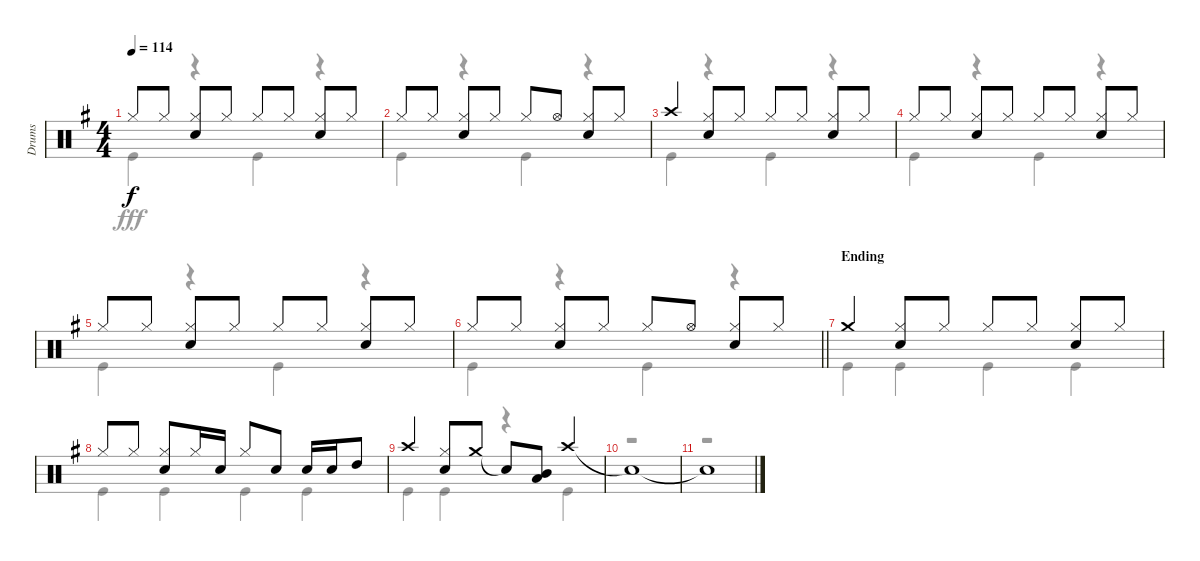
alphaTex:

\track ("Drums" "Drums") {instrument percussion}
\staff {score}
\articulation defaults
\voice
\ts (4 4)
\tempo 114
\clef neutral
\ks g "Hi-Hat (closed)".8{dy f} "Hi-Hat (closed)".8
("Hi-Hat (closed)" "Snare (hit) 2").8 "Hi-Hat (closed)".8 "Hi-Hat (closed)".8 "Hi-Hat (closed)".8 ("Hi-Hat (closed)" "Snare (hit) 2").8 "Hi-Hat (closed)".8 |
"Hi-Hat (closed)".8 "Hi-Hat (closed)".8 ("Hi-Hat (closed)" "Snare (hit) 2").8 "Hi-Hat (closed)".8 "Hi-Hat (closed)".8 "Hi-Hat (open)".8 ("Hi-Hat (closed)" "Snare (hit) 2").8 "Hi-Hat (closed)".8 |
"Crash high (hit)".4 ("Hi-Hat (closed)" "Snare (hit) 2").8 "Hi-Hat (closed)".8 "Hi-Hat (closed)".8 "Hi-Hat (closed)".8 ("Hi-Hat (closed)" "Snare (hit) 2").8 "Hi-Hat (closed)".8 |
"Hi-Hat (closed)".8 "Hi-Hat (closed)".8 ("Hi-Hat (closed)" "Snare (hit) 2").8 "Hi-Hat (closed)".8 "Hi-Hat (closed)".8 "Hi-Hat (closed)".8 ("Hi-Hat (closed)" "Snare (hit) 2").8 "Hi-Hat (closed)".8 |
"Hi-Hat (closed)".8 "Hi-Hat (closed)".8 ("Hi-Hat (closed)" "Snare (hit) 2").8 "Hi-Hat (closed)".8 "Hi-Hat (closed)".8 "Hi-Hat (closed)".8 ("Hi-Hat (closed)" "Snare (hit) 2").8 "Hi-Hat (closed)".8 |
\barLineRight lightlight "Hi-Hat (closed)".8 "Hi-Hat (closed)".8
("Hi-Hat (closed)" "Snare (hit) 2").8 "Hi-Hat (closed)".8 "Hi-Hat (closed)".8 "Hi-Hat (open)".8 ("Hi-Hat (closed)" "Snare (hit) 2").8 "Hi-Hat (closed)".8 |
\section ("" "Ending")
"Crash medium (hit)".4 ("Hi-Hat (closed)" "Snare (hit) 2").8 "Hi-Hat (closed)".8 "Hi-Hat (closed)".8 "Hi-Hat (closed)".8 ("Hi-Hat (closed)" "Snare (hit) 2").8 "Hi-Hat (closed)".8 |
"Hi-Hat (closed)".8 "Hi-Hat (closed)".8 ("Hi-Hat (closed)" "Snare (hit) 2").8 "Hi-Hat (closed)".16 "Snare (hit) 2".16 "Hi-Hat (closed)".8 "Snare (hit) 2".8 "Snare (hit) 2".16 "Snare (hit) 2".16 "High Tom (hit)".8 |
"Crash high (hit)".4 ("Hi-Hat (closed)" "Snare (hit) 2").8 "Crash medium (hit)".8 "Snare (hit)"{t}.8 ("Mid Tom (hit)" "Low Tom (hit)").8 "Crash high (hit)".4 |
"Snare (hit)"{t}.1 |
"Snare (hit)"{t}.1
\voice
\clef neutral
\ottava regular
\simile none
\ks g "Kick (hit)".4{dy fff}
r.4 "Kick (hit)".4 r.4 |
"Kick (hit)".4 r.4 "Kick (hit)".4 r.4 |
"Kick (hit)".4 r.4 "Kick (hit)".4 r.4 |
"Kick (hit)".4 r.4 "Kick (hit)".4 r.4 |
"Kick (hit)".4 r.4 "Kick (hit)".4 r.4 |
\barLineRight lightlight "Kick (hit)".4
r.4 "Kick (hit)".4 r.4 |
"Kick (hit)".4 "Kick (hit)".4 "Kick (hit)".4 "Kick (hit)".4 |
"Kick (hit)".4 "Kick (hit)".4 "Kick (hit)".4 "Kick (hit)".4 |
"Kick (hit)".4 "Kick (hit)".4 r.4 "Kick (hit)".4 |
r.1 |
r.1
